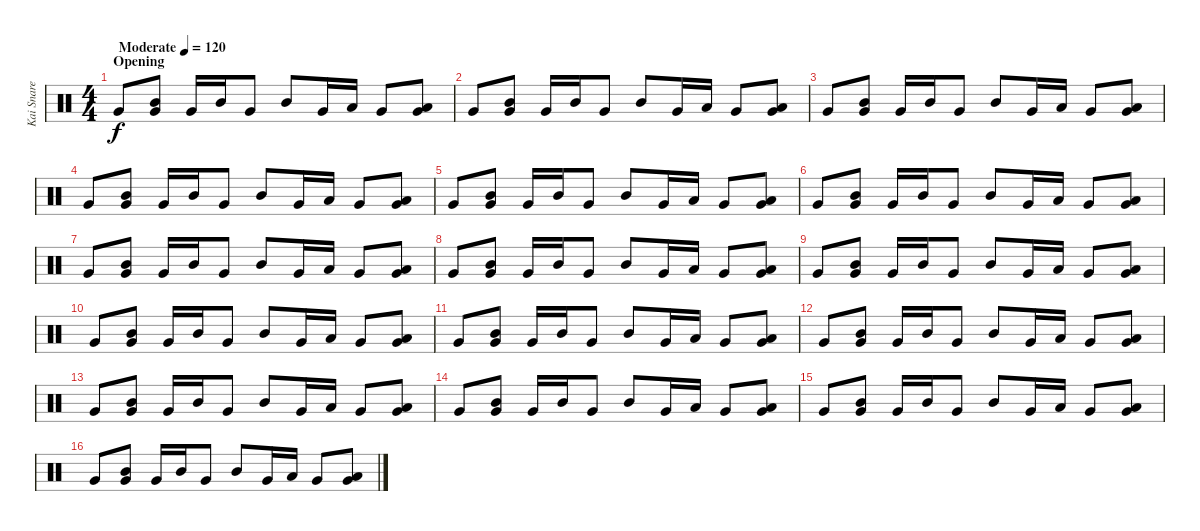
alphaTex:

\track ("Kai Snare" "Kai Snare") {instrument percussion}
\staff {score}
\articulation defaults
\ts (4 4)
\section ("" "Opening")
\tempo (120 "Moderate")
\clef neutral
\ks c "Very Low Tom (hit)".8{dy f}
("Very Low Tom (hit)" "Mid Tom (hit)").8 "Very Low Tom (hit)".16 "Mid Tom (hit)".16 "Very Low Tom (hit)".8 "Mid Tom (hit)".8 "Very Low Tom (hit)".16 "Low Tom (hit)".16 "Very Low Tom (hit)".8 ("Low Tom (hit)" "Very Low Tom (hit)").8 |
"Very Low Tom (hit)".8 ("Very Low Tom (hit)" "Mid Tom (hit)").8 "Very Low Tom (hit)".16 "Mid Tom (hit)".16 "Very Low Tom (hit)".8 "Mid Tom (hit)".8 "Very Low Tom (hit)".16 "Low Tom (hit)".16 "Very Low Tom (hit)".8 ("Low Tom (hit)" "Very Low Tom (hit)").8 |
"Very Low Tom (hit)".8 ("Very Low Tom (hit)" "Mid Tom (hit)").8 "Very Low Tom (hit)".16 "Mid Tom (hit)".16 "Very Low Tom (hit)".8 "Mid Tom (hit)".8 "Very Low Tom (hit)".16 "Low Tom (hit)".16 "Very Low Tom (hit)".8 ("Low Tom (hit)" "Very Low Tom (hit)").8 |
"Very Low Tom (hit)".8 ("Very Low Tom (hit)" "Mid Tom (hit)").8 "Very Low Tom (hit)".16 "Mid Tom (hit)".16 "Very Low Tom (hit)".8 "Mid Tom (hit)".8 "Very Low Tom (hit)".16 "Low Tom (hit)".16 "Very Low Tom (hit)".8 ("Low Tom (hit)" "Very Low Tom (hit)").8 |
"Very Low Tom (hit)".8 ("Very Low Tom (hit)" "Mid Tom (hit)").8 "Very Low Tom (hit)".16 "Mid Tom (hit)".16 "Very Low Tom (hit)".8 "Mid Tom (hit)".8 "Very Low Tom (hit)".16 "Low Tom (hit)".16 "Very Low Tom (hit)".8 ("Low Tom (hit)" "Very Low Tom (hit)").8 |
"Very Low Tom (hit)".8 ("Very Low Tom (hit)" "Mid Tom (hit)").8 "Very Low Tom (hit)".16 "Mid Tom (hit)".16 "Very Low Tom (hit)".8 "Mid Tom (hit)".8 "Very Low Tom (hit)".16 "Low Tom (hit)".16 "Very Low Tom (hit)".8 ("Low Tom (hit)" "Very Low Tom (hit)").8 |
"Very Low Tom (hit)".8 ("Very Low Tom (hit)" "Mid Tom (hit)").8 "Very Low Tom (hit)".16 "Mid Tom (hit)".16 "Very Low Tom (hit)".8 "Mid Tom (hit)".8 "Very Low Tom (hit)".16 "Low Tom (hit)".16 "Very Low Tom (hit)".8 ("Low Tom (hit)" "Very Low Tom (hit)").8 |
"Very Low Tom (hit)".8 ("Very Low Tom (hit)" "Mid Tom (hit)").8 "Very Low Tom (hit)".16 "Mid Tom (hit)".16 "Very Low Tom (hit)".8 "Mid Tom (hit)".8 "Very Low Tom (hit)".16 "Low Tom (hit)".16 "Very Low Tom (hit)".8 ("Low Tom (hit)" "Very Low Tom (hit)").8 |
"Very Low Tom (hit)".8 ("Very Low Tom (hit)" "Mid Tom (hit)").8 "Very Low Tom (hit)".16 "Mid Tom (hit)".16 "Very Low Tom (hit)".8 "Mid Tom (hit)".8 "Very Low Tom (hit)".16 "Low Tom (hit)".16 "Very Low Tom (hit)".8 ("Low Tom (hit)" "Very Low Tom (hit)").8 |
"Very Low Tom (hit)".8 ("Very Low Tom (hit)" "Mid Tom (hit)").8 "Very Low Tom (hit)".16 "Mid Tom (hit)".16 "Very Low Tom (hit)".8 "Mid Tom (hit)".8 "Very Low Tom (hit)".16 "Low Tom (hit)".16 "Very Low Tom (hit)".8 ("Low Tom (hit)" "Very Low Tom (hit)").8 |
"Very Low Tom (hit)".8 ("Very Low Tom (hit)" "Mid Tom (hit)").8 "Very Low Tom (hit)".16 "Mid Tom (hit)".16 "Very Low Tom (hit)".8 "Mid Tom (hit)".8 "Very Low Tom (hit)".16 "Low Tom (hit)".16 "Very Low Tom (hit)".8 ("Low Tom (hit)" "Very Low Tom (hit)").8 |
"Very Low Tom (hit)".8 ("Very Low Tom (hit)" "Mid Tom (hit)").8 "Very Low Tom (hit)".16 "Mid Tom (hit)".16 "Very Low Tom (hit)".8 "Mid Tom (hit)".8 "Very Low Tom (hit)".16 "Low Tom (hit)".16 "Very Low Tom (hit)".8 ("Low Tom (hit)" "Very Low Tom (hit)").8 |
"Very Low Tom (hit)".8 ("Very Low Tom (hit)" "Mid Tom (hit)").8 "Very Low Tom (hit)".16 "Mid Tom (hit)".16 "Very Low Tom (hit)".8 "Mid Tom (hit)".8 "Very Low Tom (hit)".16 "Low Tom (hit)".16 "Very Low Tom (hit)".8 ("Low Tom (hit)" "Very Low Tom (hit)").8 |
"Very Low Tom (hit)".8 ("Very Low Tom (hit)" "Mid Tom (hit)").8 "Very Low Tom (hit)".16 "Mid Tom (hit)".16 "Very Low Tom (hit)".8 "Mid Tom (hit)".8 "Very Low Tom (hit)".16 "Low Tom (hit)".16 "Very Low Tom (hit)".8 ("Low Tom (hit)" "Very Low Tom (hit)").8 |
"Very Low Tom (hit)".8 ("Very Low Tom (hit)" "Mid Tom (hit)").8 "Very Low Tom (hit)".16 "Mid Tom (hit)".16 "Very Low Tom (hit)".8 "Mid Tom (hit)".8 "Very Low Tom (hit)".16 "Low Tom (hit)".16 "Very Low Tom (hit)".8 ("Low Tom (hit)" "Very Low Tom (hit)").8 |
"Very Low Tom (hit)".8 ("Very Low Tom (hit)" "Mid Tom (hit)").8 "Very Low Tom (hit)".16 "Mid Tom (hit)".16 "Very Low Tom (hit)".8 "Mid Tom (hit)".8 "Very Low Tom (hit)".16 "Low Tom (hit)".16 "Very Low Tom (hit)".8 ("Low Tom (hit)" "Very Low Tom (hit)").8
